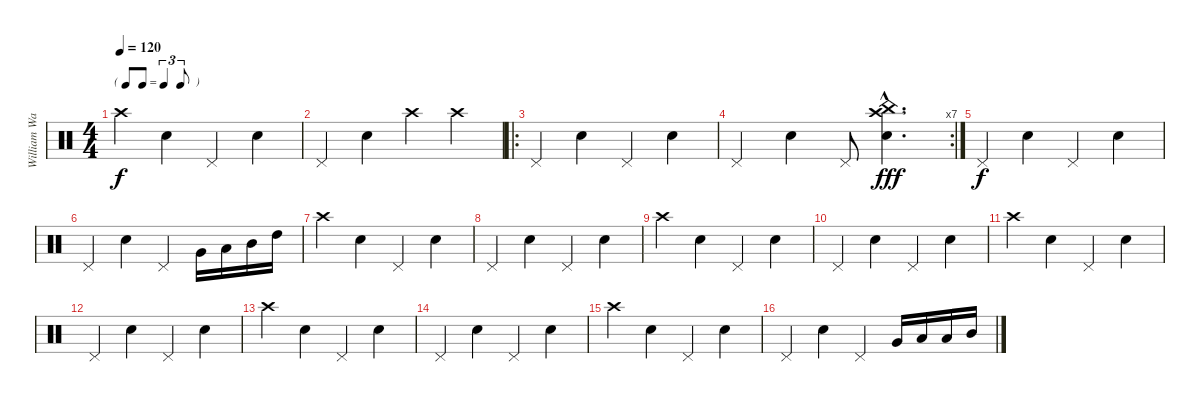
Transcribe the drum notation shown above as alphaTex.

\track ("William Ward" "William Wa") {instrument percussion}
\staff {score}
\articulation defaults
\ts (4 4)
\tf triplet8th
\tempo 120
\clef neutral
\ks c "Crash high (hit)".4{dy f} "Snare (hit) 2".4 "Pedal Hi-Hat (hit)".4 "Snare (hit) 2".4
|
"Pedal Hi-Hat (hit)".4 "Snare (hit) 2".4 "Crash high (hit)".4 "Crash high (hit)".4 |
\ro "Pedal Hi-Hat (hit)".4 "Snare (hit) 2".4 "Pedal Hi-Hat (hit)".4 "Snare (hit) 2".4
|
\rc 7 "Pedal Hi-Hat (hit)".4 "Snare (hit) 2".4 "Pedal Hi-Hat (hit)".8
("Snare (hit) 2"{hac} "China (hit)"{hac} "Crash high (hit)"{hac}).4{d dy fff} |
"Pedal Hi-Hat (hit)".4{dy f} "Snare (hit) 2".4 "Pedal Hi-Hat (hit)".4 "Snare (hit) 2".4 |
"Pedal Hi-Hat (hit)".4 "Snare (hit) 2".4 "Pedal Hi-Hat (hit)".4 "Very Low Tom (hit)".16 "Low Tom (hit)".16 "Mid Tom (hit)".16 "High Tom (hit)".16 |
"Crash high (hit)".4 "Snare (hit) 2".4 "Pedal Hi-Hat (hit)".4 "Snare (hit) 2".4 |
"Pedal Hi-Hat (hit)".4 "Snare (hit) 2".4 "Pedal Hi-Hat (hit)".4 "Snare (hit) 2".4 |
"Crash high (hit)".4 "Snare (hit) 2".4 "Pedal Hi-Hat (hit)".4 "Snare (hit) 2".4 |
"Pedal Hi-Hat (hit)".4 "Snare (hit) 2".4 "Pedal Hi-Hat (hit)".4 "Snare (hit) 2".4 |
"Crash high (hit)".4 "Snare (hit) 2".4 "Pedal Hi-Hat (hit)".4 "Snare (hit) 2".4 |
"Pedal Hi-Hat (hit)".4 "Snare (hit) 2".4 "Pedal Hi-Hat (hit)".4 "Snare (hit) 2".4 |
"Crash high (hit)".4 "Snare (hit) 2".4 "Pedal Hi-Hat (hit)".4 "Snare (hit) 2".4 |
"Pedal Hi-Hat (hit)".4 "Snare (hit) 2".4 "Pedal Hi-Hat (hit)".4 "Snare (hit) 2".4 |
"Crash high (hit)".4 "Snare (hit) 2".4 "Pedal Hi-Hat (hit)".4 "Snare (hit) 2".4 |
"Pedal Hi-Hat (hit)".4 "Snare (hit) 2".4 "Pedal Hi-Hat (hit)".4 "Very Low Tom (hit)".16 "Low Tom (hit)".16 "Low Tom (hit)".16 "Mid Tom (hit)".16
